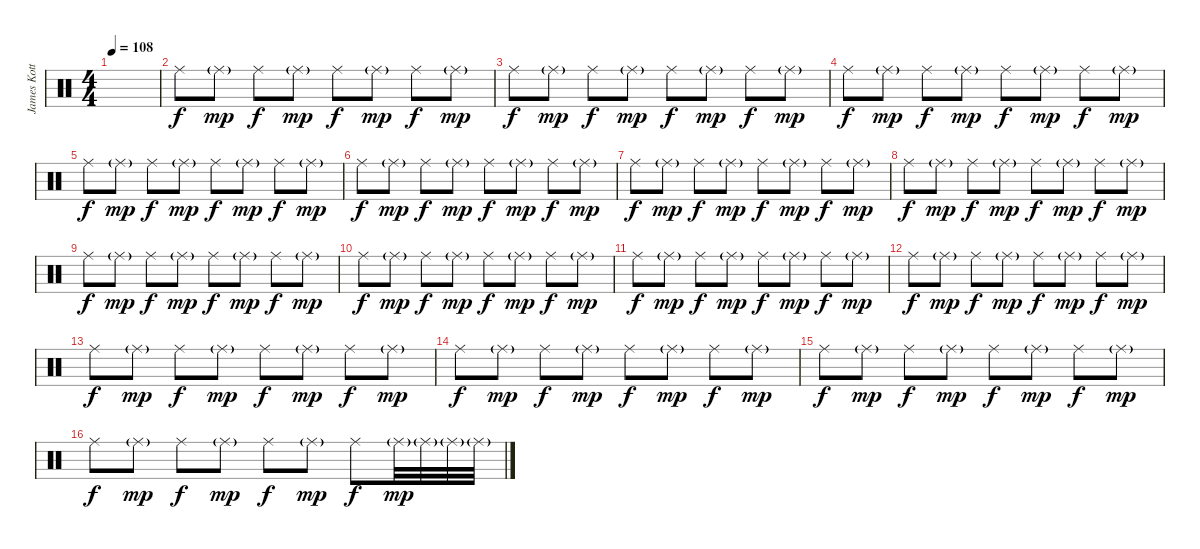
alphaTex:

\track ("James Kottak" "James Kott") {instrument percussion}
\staff {score}
\articulation defaults
\ts (4 4)
\tempo 108
\clef neutral
\ks c
|
"Ride (middle)".8 "Ride (middle)"{g}.8{dy mp} "Ride (middle)".8{dy f} "Ride (middle)"{g}.8{dy mp} "Ride (middle)".8{dy f} "Ride (middle)"{g}.8{dy mp} "Ride (middle)".8{dy f} "Ride (middle)"{g}.8{dy mp} |
"Ride (middle)".8{dy f} "Ride (middle)"{g}.8{dy mp} "Ride (middle)".8{dy f} "Ride (middle)"{g}.8{dy mp} "Ride (middle)".8{dy f} "Ride (middle)"{g}.8{dy mp} "Ride (middle)".8{dy f} "Ride (middle)"{g}.8{dy mp} |
"Ride (middle)".8{dy f} "Ride (middle)"{g}.8{dy mp} "Ride (middle)".8{dy f} "Ride (middle)"{g}.8{dy mp} "Ride (middle)".8{dy f} "Ride (middle)"{g}.8{dy mp} "Ride (middle)".8{dy f} "Ride (middle)"{g}.8{dy mp} |
"Ride (middle)".8{dy f} "Ride (middle)"{g}.8{dy mp} "Ride (middle)".8{dy f} "Ride (middle)"{g}.8{dy mp} "Ride (middle)".8{dy f} "Ride (middle)"{g}.8{dy mp} "Ride (middle)".8{dy f} "Ride (middle)"{g}.8{dy mp} |
"Ride (middle)".8{dy f} "Ride (middle)"{g}.8{dy mp} "Ride (middle)".8{dy f} "Ride (middle)"{g}.8{dy mp} "Ride (middle)".8{dy f} "Ride (middle)"{g}.8{dy mp} "Ride (middle)".8{dy f} "Ride (middle)"{g}.8{dy mp} |
"Ride (middle)".8{dy f} "Ride (middle)"{g}.8{dy mp} "Ride (middle)".8{dy f} "Ride (middle)"{g}.8{dy mp} "Ride (middle)".8{dy f} "Ride (middle)"{g}.8{dy mp} "Ride (middle)".8{dy f} "Ride (middle)"{g}.8{dy mp} |
"Ride (middle)".8{dy f} "Ride (middle)"{g}.8{dy mp} "Ride (middle)".8{dy f} "Ride (middle)"{g}.8{dy mp} "Ride (middle)".8{dy f} "Ride (middle)"{g}.8{dy mp} "Ride (middle)".8{dy f} "Ride (middle)"{g}.8{dy mp} |
"Ride (middle)".8{dy f} "Ride (middle)"{g}.8{dy mp} "Ride (middle)".8{dy f} "Ride (middle)"{g}.8{dy mp} "Ride (middle)".8{dy f} "Ride (middle)"{g}.8{dy mp} "Ride (middle)".8{dy f} "Ride (middle)"{g}.8{dy mp} |
"Ride (middle)".8{dy f} "Ride (middle)"{g}.8{dy mp} "Ride (middle)".8{dy f} "Ride (middle)"{g}.8{dy mp} "Ride (middle)".8{dy f} "Ride (middle)"{g}.8{dy mp} "Ride (middle)".8{dy f} "Ride (middle)"{g}.8{dy mp} |
"Ride (middle)".8{dy f} "Ride (middle)"{g}.8{dy mp} "Ride (middle)".8{dy f} "Ride (middle)"{g}.8{dy mp} "Ride (middle)".8{dy f} "Ride (middle)"{g}.8{dy mp} "Ride (middle)".8{dy f} "Ride (middle)"{g}.8{dy mp} |
"Ride (middle)".8{dy f} "Ride (middle)"{g}.8{dy mp} "Ride (middle)".8{dy f} "Ride (middle)"{g}.8{dy mp} "Ride (middle)".8{dy f} "Ride (middle)"{g}.8{dy mp} "Ride (middle)".8{dy f} "Ride (middle)"{g}.8{dy mp} |
"Ride (middle)".8{dy f} "Ride (middle)"{g}.8{dy mp} "Ride (middle)".8{dy f} "Ride (middle)"{g}.8{dy mp} "Ride (middle)".8{dy f} "Ride (middle)"{g}.8{dy mp} "Ride (middle)".8{dy f} "Ride (middle)"{g}.8{dy mp} |
"Ride (middle)".8{dy f} "Ride (middle)"{g}.8{dy mp} "Ride (middle)".8{dy f} "Ride (middle)"{g}.8{dy mp} "Ride (middle)".8{dy f} "Ride (middle)"{g}.8{dy mp} "Ride (middle)".8{dy f} "Ride (middle)"{g}.8{dy mp} |
"Ride (middle)".8{dy f} "Ride (middle)"{g}.8{dy mp} "Ride (middle)".8{dy f} "Ride (middle)"{g}.8{dy mp} "Ride (middle)".8{dy f} "Ride (middle)"{g}.8{dy mp} "Ride (middle)".8{dy f} "Ride (middle)"{g}.8{dy mp} |
"Ride (middle)".8{dy f} "Ride (middle)"{g}.8{dy mp} "Ride (middle)".8{dy f} "Ride (middle)"{g}.8{dy mp} "Ride (middle)".8{dy f} "Ride (middle)"{g}.8{dy mp} "Ride (middle)".8{dy f} "Ride (middle)"{g}.32{dy mp} "Ride (middle)"{g}.32 "Ride (middle)"{g}.32 "Ride (middle)"{g}.32
